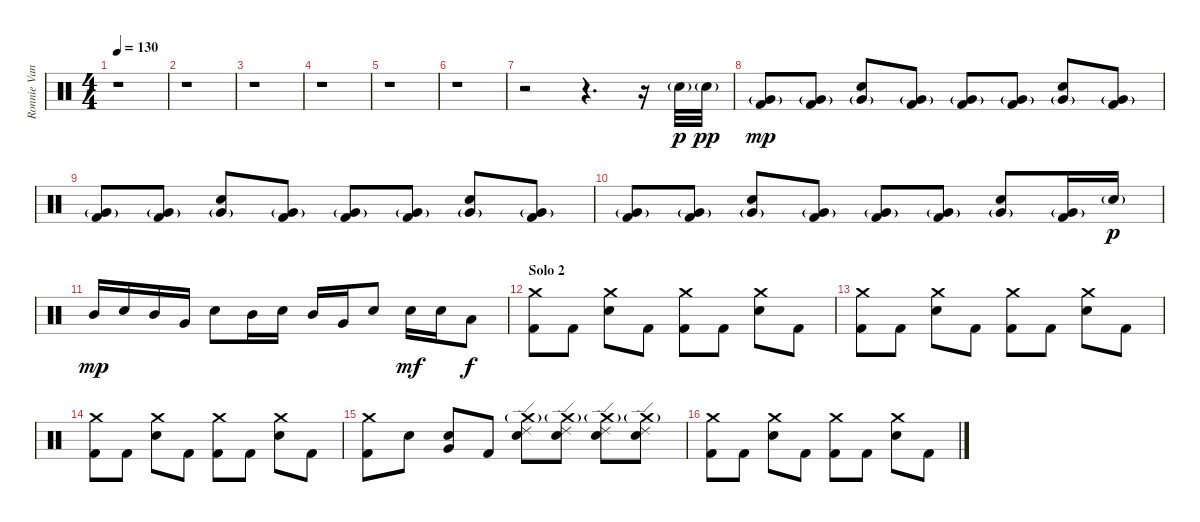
\track ("Ronnie Vannucci Jr." "Ronnie Van") {instrument percussion}
\staff {score}
\articulation defaults
\ts (4 4)
\tempo 130
\clef neutral
\ks c
r.1{dy f} |
r.1 |
r.1 |
r.1 |
r.1 |
r.1 |
r.2 r.4{d} r.16 "Electric Snare (hit)"{g}.32{dy p} "Electric Snare (hit)"{g}.32{dy pp} |
("Very Low Tom (hit)"{g} "Kick (hit) 2").8{dy mp} ("Very Low Tom (hit)"{g} "Kick (hit) 2").8 ("Very Low Tom (hit)"{g} "Electric Snare (hit)").8 ("Very Low Tom (hit)"{g} "Kick (hit) 2").8 ("Very Low Tom (hit)"{g} "Kick (hit) 2").8 ("Very Low Tom (hit)"{g} "Kick (hit) 2").8 ("Very Low Tom (hit)"{g} "Electric Snare (hit)").8 ("Very Low Tom (hit)"{g} "Kick (hit) 2").8 |
("Very Low Tom (hit)"{g} "Kick (hit) 2").8 ("Very Low Tom (hit)"{g} "Kick (hit) 2").8 ("Very Low Tom (hit)"{g} "Electric Snare (hit)").8 ("Very Low Tom (hit)"{g} "Kick (hit) 2").8 ("Very Low Tom (hit)"{g} "Kick (hit) 2").8 ("Very Low Tom (hit)"{g} "Kick (hit) 2").8 ("Very Low Tom (hit)"{g} "Electric Snare (hit)").8 ("Very Low Tom (hit)"{g} "Kick (hit) 2").8 |
("Very Low Tom (hit)"{g} "Kick (hit) 2").8 ("Very Low Tom (hit)"{g} "Kick (hit) 2").8 ("Very Low Tom (hit)"{g} "Electric Snare (hit)").8 ("Very Low Tom (hit)"{g} "Kick (hit) 2").8 ("Very Low Tom (hit)"{g} "Kick (hit) 2").8 ("Very Low Tom (hit)"{g} "Kick (hit) 2").8 ("Very Low Tom (hit)"{g} "Electric Snare (hit)").8 ("Very Low Tom (hit)"{g} "Kick (hit) 2").16 "Electric Snare (hit)"{g}.16{dy p} |
"Mid Tom (hit)".16{dy mp} "Electric Snare (hit)".16 "Mid Tom (hit)".16 "Very Low Tom (hit)".16 "Electric Snare (hit)".8 "Mid Tom (hit)".16 "Electric Snare (hit)".16 "Mid Tom (hit)".16 "Very Low Tom (hit)".16 "Electric Snare (hit)".8 "Electric Snare (hit)".16{dy mf} "Electric Snare (hit)".16 "Low Floor Tom (hit)".8{dy f} |
\section ("" "Solo 2")
("Crash medium (hit)" "Kick (hit) 2").8 "Kick (hit) 2".8 ("Crash medium (hit)" "Electric Snare (hit)").8 "Kick (hit) 2".8 ("Crash medium (hit)" "Kick (hit) 2").8 "Kick (hit) 2".8 ("Crash medium (hit)" "Electric Snare (hit)").8 "Kick (hit) 2".8 |
("Crash medium (hit)" "Kick (hit) 2").8 "Kick (hit) 2".8 ("Crash medium (hit)" "Electric Snare (hit)").8 "Kick (hit) 2".8 ("Crash medium (hit)" "Kick (hit) 2").8 "Kick (hit) 2".8 ("Crash medium (hit)" "Electric Snare (hit)").8 "Kick (hit) 2".8 |
("Crash medium (hit)" "Kick (hit) 2").8 "Kick (hit) 2".8 ("Crash medium (hit)" "Electric Snare (hit)").8 "Kick (hit) 2".8 ("Crash medium (hit)" "Kick (hit) 2").8 "Kick (hit) 2".8 ("Crash medium (hit)" "Electric Snare (hit)").8 "Kick (hit) 2".8 |
("Crash medium (hit)" "Kick (hit) 2").8 "Electric Snare (hit)".8 ("Very Low Tom (hit)" "Electric Snare (hit)").8 "Kick (hit) 2".8 ("Crash medium (hit)"{g} "Ride (edge) 2" "Electric Snare (hit)").8 ("Crash medium (hit)"{g} "Ride (edge) 2" "Electric Snare (hit)").8 ("Crash medium (hit)"{g} "Ride (edge) 2" "Electric Snare (hit)").8 ("Crash medium (hit)"{g} "Ride (edge) 2" "Electric Snare (hit)").8 |
("Crash medium (hit)" "Kick (hit) 2").8 "Kick (hit) 2".8 ("Crash medium (hit)" "Electric Snare (hit)").8 "Kick (hit) 2".8 ("Crash medium (hit)" "Kick (hit) 2").8 "Kick (hit) 2".8 ("Crash medium (hit)" "Electric Snare (hit)").8 "Kick (hit) 2".8
